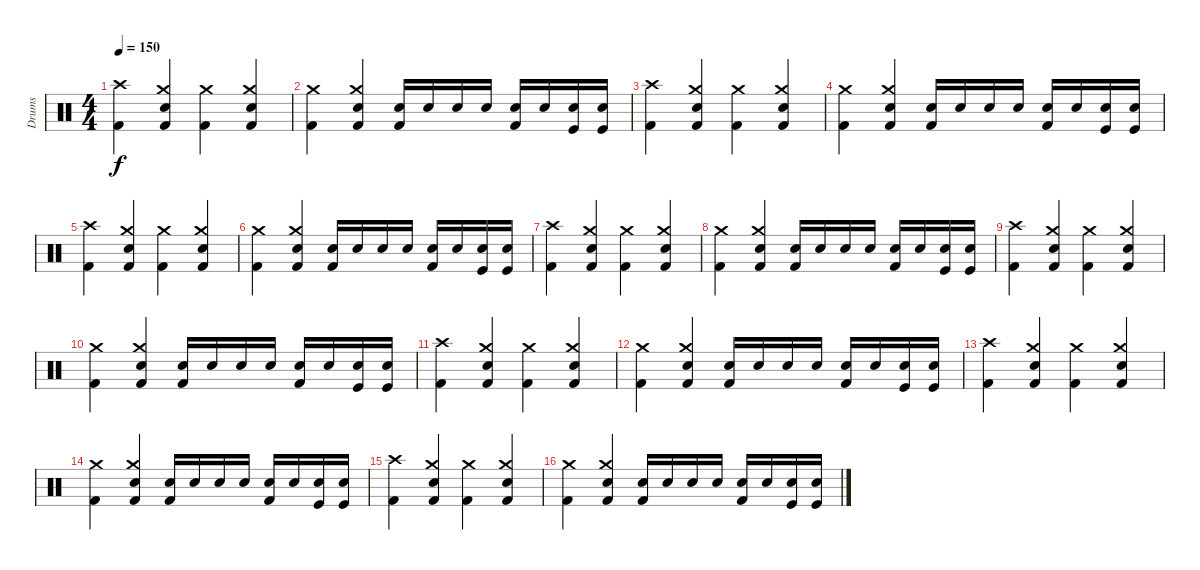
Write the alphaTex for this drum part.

\track ("Drums" "Drums") {instrument percussion}
\staff {score}
\articulation defaults
\ts (4 4)
\tempo 150
\clef neutral
\ks c
("Kick (hit) 2" "Crash high (hit)").4{dy f} ("Crash medium (hit)" "Electric Snare (hit)" "Kick (hit) 2").4 ("Crash medium (hit)" "Kick (hit) 2").4 ("Crash medium (hit)" "Electric Snare (hit)" "Kick (hit) 2").4 |
("Crash medium (hit)" "Kick (hit) 2").4 ("Crash medium (hit)" "Electric Snare (hit)" "Kick (hit) 2").4 ("Electric Snare (hit)" "Kick (hit) 2").16 "Electric Snare (hit)".16 "Electric Snare (hit)".16 "Electric Snare (hit)".16 ("Snare (hit) 2" "Kick (hit) 2").16 "Snare (hit) 2".16 ("Kick (hit)" "Snare (hit) 2").16 ("Kick (hit)" "Snare (hit) 2").16 |
("Crash high (hit)" "Kick (hit) 2").4 ("Crash medium (hit)" "Electric Snare (hit)" "Kick (hit) 2").4 ("Crash medium (hit)" "Kick (hit) 2").4 ("Crash medium (hit)" "Electric Snare (hit)" "Kick (hit) 2").4 |
("Crash medium (hit)" "Kick (hit) 2").4 ("Crash medium (hit)" "Electric Snare (hit)" "Kick (hit) 2").4 ("Electric Snare (hit)" "Kick (hit) 2").16 "Electric Snare (hit)".16 "Electric Snare (hit)".16 "Electric Snare (hit)".16 ("Snare (hit) 2" "Kick (hit) 2").16 "Snare (hit) 2".16 ("Kick (hit)" "Snare (hit) 2").16 ("Kick (hit)" "Snare (hit) 2").16 |
("Crash high (hit)" "Kick (hit) 2").4 ("Crash medium (hit)" "Electric Snare (hit)" "Kick (hit) 2").4 ("Crash medium (hit)" "Kick (hit) 2").4 ("Crash medium (hit)" "Electric Snare (hit)" "Kick (hit) 2").4 |
("Crash medium (hit)" "Kick (hit) 2").4 ("Crash medium (hit)" "Electric Snare (hit)" "Kick (hit) 2").4 ("Electric Snare (hit)" "Kick (hit) 2").16 "Electric Snare (hit)".16 "Electric Snare (hit)".16 "Electric Snare (hit)".16 ("Snare (hit) 2" "Kick (hit) 2").16 "Snare (hit) 2".16 ("Kick (hit)" "Snare (hit) 2").16 ("Kick (hit)" "Snare (hit) 2").16 |
("Crash high (hit)" "Kick (hit) 2").4 ("Crash medium (hit)" "Electric Snare (hit)" "Kick (hit) 2").4 ("Crash medium (hit)" "Kick (hit) 2").4 ("Crash medium (hit)" "Electric Snare (hit)" "Kick (hit) 2").4 |
("Crash medium (hit)" "Kick (hit) 2").4 ("Crash medium (hit)" "Electric Snare (hit)" "Kick (hit) 2").4 ("Electric Snare (hit)" "Kick (hit) 2").16 "Electric Snare (hit)".16 "Electric Snare (hit)".16 "Electric Snare (hit)".16 ("Snare (hit) 2" "Kick (hit) 2").16 "Snare (hit) 2".16 ("Kick (hit)" "Snare (hit) 2").16 ("Kick (hit)" "Snare (hit) 2").16 |
("Crash high (hit)" "Kick (hit) 2").4 ("Crash medium (hit)" "Electric Snare (hit)" "Kick (hit) 2").4 ("Crash medium (hit)" "Kick (hit) 2").4 ("Crash medium (hit)" "Electric Snare (hit)" "Kick (hit) 2").4 |
("Crash medium (hit)" "Kick (hit) 2").4 ("Crash medium (hit)" "Electric Snare (hit)" "Kick (hit) 2").4 ("Electric Snare (hit)" "Kick (hit) 2").16 "Electric Snare (hit)".16 "Electric Snare (hit)".16 "Electric Snare (hit)".16 ("Snare (hit) 2" "Kick (hit) 2").16 "Snare (hit) 2".16 ("Kick (hit)" "Snare (hit) 2").16 ("Kick (hit)" "Snare (hit) 2").16 |
("Crash high (hit)" "Kick (hit) 2").4 ("Crash medium (hit)" "Electric Snare (hit)" "Kick (hit) 2").4 ("Crash medium (hit)" "Kick (hit) 2").4 ("Crash medium (hit)" "Electric Snare (hit)" "Kick (hit) 2").4 |
("Crash medium (hit)" "Kick (hit) 2").4 ("Crash medium (hit)" "Electric Snare (hit)" "Kick (hit) 2").4 ("Electric Snare (hit)" "Kick (hit) 2").16 "Electric Snare (hit)".16 "Electric Snare (hit)".16 "Electric Snare (hit)".16 ("Snare (hit) 2" "Kick (hit) 2").16 "Snare (hit) 2".16 ("Kick (hit)" "Snare (hit) 2").16 ("Kick (hit)" "Snare (hit) 2").16 |
("Crash high (hit)" "Kick (hit) 2").4 ("Crash medium (hit)" "Electric Snare (hit)" "Kick (hit) 2").4 ("Crash medium (hit)" "Kick (hit) 2").4 ("Crash medium (hit)" "Electric Snare (hit)" "Kick (hit) 2").4 |
("Crash medium (hit)" "Kick (hit) 2").4 ("Crash medium (hit)" "Electric Snare (hit)" "Kick (hit) 2").4 ("Electric Snare (hit)" "Kick (hit) 2").16 "Electric Snare (hit)".16 "Electric Snare (hit)".16 "Electric Snare (hit)".16 ("Snare (hit) 2" "Kick (hit) 2").16 "Snare (hit) 2".16 ("Kick (hit)" "Snare (hit) 2").16 ("Kick (hit)" "Snare (hit) 2").16 |
("Crash high (hit)" "Kick (hit) 2").4 ("Crash medium (hit)" "Electric Snare (hit)" "Kick (hit) 2").4 ("Crash medium (hit)" "Kick (hit) 2").4 ("Crash medium (hit)" "Electric Snare (hit)" "Kick (hit) 2").4 |
("Crash medium (hit)" "Kick (hit) 2").4 ("Crash medium (hit)" "Electric Snare (hit)" "Kick (hit) 2").4 ("Electric Snare (hit)" "Kick (hit) 2").16 "Electric Snare (hit)".16 "Electric Snare (hit)".16 "Electric Snare (hit)".16 ("Snare (hit) 2" "Kick (hit) 2").16 "Snare (hit) 2".16 ("Kick (hit)" "Snare (hit) 2").16 ("Kick (hit)" "Snare (hit) 2").16
